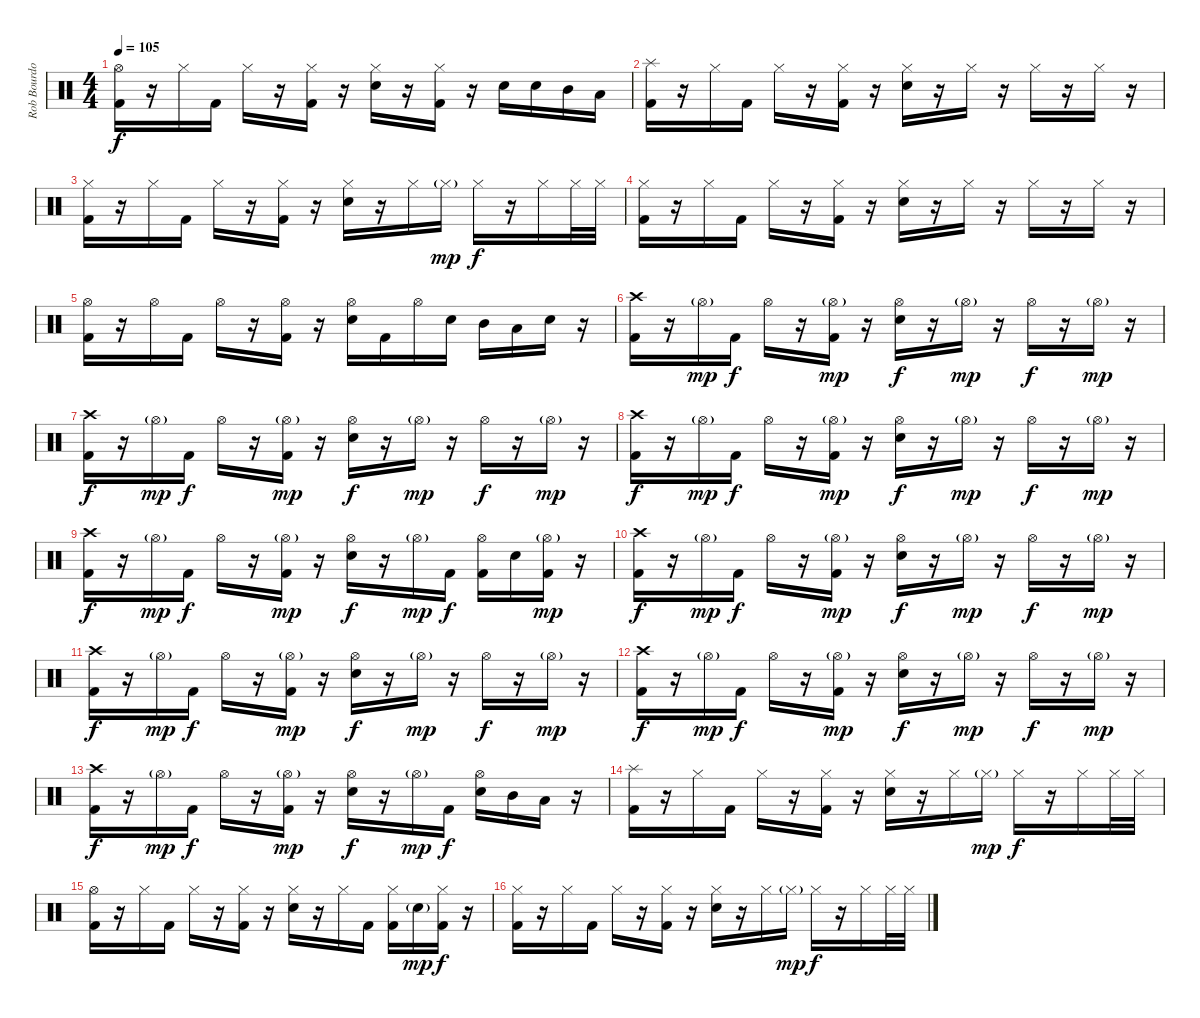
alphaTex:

\track ("Rob Bourdon (Drums)" "Rob Bourdo") {instrument percussion}
\staff {score}
\articulation defaults
\ts (4 4)
\tempo 105
\clef neutral
\ks c
("Hi-Hat (open)" "Kick (hit) 2").16{dy f} r.16 "Hi-Hat (closed)".16 "Kick (hit) 2".16 "Hi-Hat (closed)".16 r.16 ("Hi-Hat (closed)" "Kick (hit) 2").16 r.16 ("Hi-Hat (closed)" "Electric Snare (hit)").16 r.16 ("Hi-Hat (closed)" "Kick (hit) 2").16 r.16 "Electric Snare (hit)".16 "Electric Snare (hit)".16 "Mid Tom (hit)".16 "Low Tom (hit)".16 |
("Splash (hit)" "Kick (hit) 2").16 r.16 "Hi-Hat (closed)".16 "Kick (hit) 2".16 "Hi-Hat (closed)".16 r.16 ("Hi-Hat (closed)" "Kick (hit) 2").16 r.16 ("Hi-Hat (closed)" "Electric Snare (hit)").16 r.16 "Hi-Hat (closed)".16 r.16 "Hi-Hat (closed)".16 r.16 "Hi-Hat (closed)".16 r.16 |
("Hi-Hat (closed)" "Kick (hit) 2").16 r.16 "Hi-Hat (closed)".16 "Kick (hit) 2".16 "Hi-Hat (closed)".16 r.16 ("Hi-Hat (closed)" "Kick (hit) 2").16 r.16 ("Hi-Hat (closed)" "Electric Snare (hit)").16 r.16 "Hi-Hat (closed)".16 "Hi-Hat (closed)"{g}.16{dy mp} "Hi-Hat (closed)".16{dy f} r.16 "Hi-Hat (closed)".16 "Hi-Hat (closed)".32 "Hi-Hat (closed)".32 |
("Hi-Hat (closed)" "Kick (hit) 2").16 r.16 "Hi-Hat (closed)".16 "Kick (hit) 2".16 "Hi-Hat (closed)".16 r.16 ("Hi-Hat (closed)" "Kick (hit) 2").16 r.16 ("Hi-Hat (closed)" "Electric Snare (hit)").16 r.16 "Hi-Hat (closed)".16 r.16 "Hi-Hat (closed)".16 r.16 "Hi-Hat (closed)".16 r.16 |
("Hi-Hat (open)" "Kick (hit) 2").16 r.16 "Hi-Hat (open)".16 "Kick (hit) 2".16 "Hi-Hat (open)".16 r.16 ("Hi-Hat (open)" "Kick (hit) 2").16 r.16 ("Hi-Hat (open)" "Electric Snare (hit)").16 "Kick (hit) 2".16 "Hi-Hat (open)".16 "Electric Snare (hit)".16 "Mid Tom (hit)".16 "Low Tom (hit)".16 "Electric Snare (hit)".16 r.16 |
("Crash high (hit)" "Kick (hit) 2").16 r.16 "Hi-Hat (open)"{g}.16{dy mp} "Kick (hit) 2".16{dy f} "Hi-Hat (open)".16 r.16 ("Hi-Hat (open)"{g} "Kick (hit) 2").16{dy mp} r.16 ("Hi-Hat (open)" "Electric Snare (hit)").16{dy f} r.16 "Hi-Hat (open)"{g}.16{dy mp} r.16 "Hi-Hat (open)".16{dy f} r.16 "Hi-Hat (open)"{g}.16{dy mp} r.16 |
("Crash high (hit)" "Kick (hit) 2").16{dy f} r.16 "Hi-Hat (open)"{g}.16{dy mp} "Kick (hit) 2".16{dy f} "Hi-Hat (open)".16 r.16 ("Hi-Hat (open)"{g} "Kick (hit) 2").16{dy mp} r.16 ("Hi-Hat (open)" "Electric Snare (hit)").16{dy f} r.16 "Hi-Hat (open)"{g}.16{dy mp} r.16 "Hi-Hat (open)".16{dy f} r.16 "Hi-Hat (open)"{g}.16{dy mp} r.16 |
("Crash high (hit)" "Kick (hit) 2").16{dy f} r.16 "Hi-Hat (open)"{g}.16{dy mp} "Kick (hit) 2".16{dy f} "Hi-Hat (open)".16 r.16 ("Hi-Hat (open)"{g} "Kick (hit) 2").16{dy mp} r.16 ("Hi-Hat (open)" "Electric Snare (hit)").16{dy f} r.16 "Hi-Hat (open)"{g}.16{dy mp} r.16 "Hi-Hat (open)".16{dy f} r.16 "Hi-Hat (open)"{g}.16{dy mp} r.16 |
("Crash high (hit)" "Kick (hit) 2").16{dy f} r.16 "Hi-Hat (open)"{g}.16{dy mp} "Kick (hit) 2".16{dy f} "Hi-Hat (open)".16 r.16 ("Hi-Hat (open)"{g} "Kick (hit) 2").16{dy mp} r.16 ("Hi-Hat (open)" "Electric Snare (hit)").16{dy f} r.16 "Hi-Hat (open)"{g}.16{dy mp} "Kick (hit) 2".16{dy f} ("Hi-Hat (open)" "Kick (hit) 2").16 "Electric Snare (hit)".16 ("Hi-Hat (open)"{g} "Kick (hit) 2").16{dy mp} r.16 |
("Crash high (hit)" "Kick (hit) 2").16{dy f} r.16 "Hi-Hat (open)"{g}.16{dy mp} "Kick (hit) 2".16{dy f} "Hi-Hat (open)".16 r.16 ("Hi-Hat (open)"{g} "Kick (hit) 2").16{dy mp} r.16 ("Hi-Hat (open)" "Electric Snare (hit)").16{dy f} r.16 "Hi-Hat (open)"{g}.16{dy mp} r.16 "Hi-Hat (open)".16{dy f} r.16 "Hi-Hat (open)"{g}.16{dy mp} r.16 |
("Crash high (hit)" "Kick (hit) 2").16{dy f} r.16 "Hi-Hat (open)"{g}.16{dy mp} "Kick (hit) 2".16{dy f} "Hi-Hat (open)".16 r.16 ("Hi-Hat (open)"{g} "Kick (hit) 2").16{dy mp} r.16 ("Hi-Hat (open)" "Electric Snare (hit)").16{dy f} r.16 "Hi-Hat (open)"{g}.16{dy mp} r.16 "Hi-Hat (open)".16{dy f} r.16 "Hi-Hat (open)"{g}.16{dy mp} r.16 |
("Crash high (hit)" "Kick (hit) 2").16{dy f} r.16 "Hi-Hat (open)"{g}.16{dy mp} "Kick (hit) 2".16{dy f} "Hi-Hat (open)".16 r.16 ("Hi-Hat (open)"{g} "Kick (hit) 2").16{dy mp} r.16 ("Hi-Hat (open)" "Electric Snare (hit)").16{dy f} r.16 "Hi-Hat (open)"{g}.16{dy mp} r.16 "Hi-Hat (open)".16{dy f} r.16 "Hi-Hat (open)"{g}.16{dy mp} r.16 |
("Crash high (hit)" "Kick (hit) 2").16{dy f} r.16 "Hi-Hat (open)"{g}.16{dy mp} "Kick (hit) 2".16{dy f} "Hi-Hat (open)".16 r.16 ("Hi-Hat (open)"{g} "Kick (hit) 2").16{dy mp} r.16 ("Hi-Hat (open)" "Electric Snare (hit)").16{dy f} r.16 "Hi-Hat (open)"{g}.16{dy mp} "Kick (hit) 2".16{dy f} ("Hi-Hat (open)" "Electric Snare (hit)").16 "Mid Tom (hit)".16 "Low Tom (hit)".16 r.16 |
("Splash (hit)" "Kick (hit) 2").16 r.16 "Hi-Hat (closed)".16 "Kick (hit) 2".16 "Hi-Hat (closed)".16 r.16 ("Hi-Hat (closed)" "Kick (hit) 2").16 r.16 ("Hi-Hat (closed)" "Electric Snare (hit)").16 r.16 "Hi-Hat (closed)".16 "Hi-Hat (closed)"{g}.16{dy mp} "Hi-Hat (closed)".16{dy f} r.16 "Hi-Hat (closed)".16 "Hi-Hat (closed)".32 "Hi-Hat (closed)".32 |
("Hi-Hat (open)" "Kick (hit) 2").16 r.16 "Hi-Hat (closed)".16 "Kick (hit) 2".16 "Hi-Hat (closed)".16 r.16 ("Hi-Hat (closed)" "Kick (hit) 2").16 r.16 ("Hi-Hat (closed)" "Electric Snare (hit)").16 r.16 "Hi-Hat (closed)".16 "Kick (hit) 2".16 ("Hi-Hat (closed)" "Kick (hit) 2").16 "Electric Snare (hit)"{g}.16{dy mp} ("Hi-Hat (closed)" "Kick (hit) 2").16{dy f} r.16 |
("Hi-Hat (closed)" "Kick (hit) 2").16 r.16 "Hi-Hat (closed)".16 "Kick (hit) 2".16 "Hi-Hat (closed)".16 r.16 ("Hi-Hat (closed)" "Kick (hit) 2").16 r.16 ("Hi-Hat (closed)" "Electric Snare (hit)").16 r.16 "Hi-Hat (closed)".16 "Hi-Hat (closed)"{g}.16{dy mp} "Hi-Hat (closed)".16{dy f} r.16 "Hi-Hat (closed)".16 "Hi-Hat (closed)".32 "Hi-Hat (closed)".32
